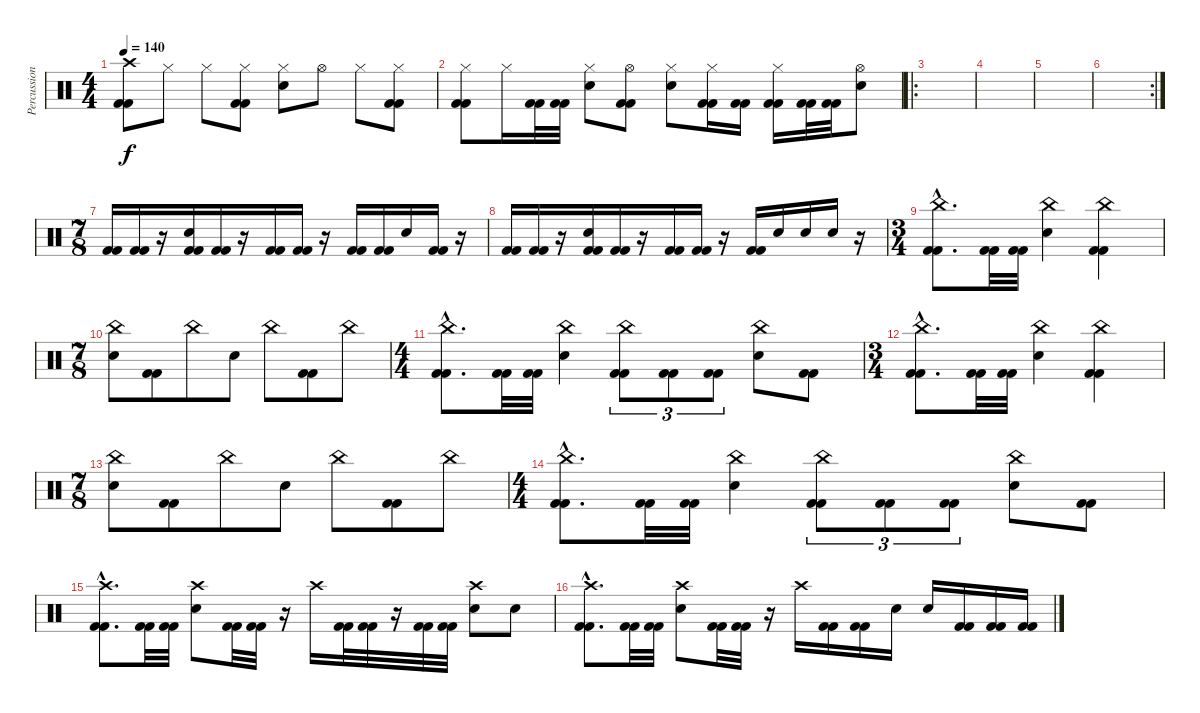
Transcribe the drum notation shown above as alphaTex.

\track ("Percussions" "Percussion") {instrument percussion}
\staff {score}
\articulation defaults
\ts (4 4)
\tempo 140
\clef neutral
\ks c
("Kick (hit) 2" "Kick (hit) 2" "Crash high (hit)").8{dy f} "Hi-Hat (closed)".8 "Hi-Hat (closed)".8 ("Kick (hit) 2" "Kick (hit) 2" "Hi-Hat (closed)").8 ("Electric Snare (hit)" "Hi-Hat (closed)").8 "Hi-Hat (open)".8 "Hi-Hat (closed)".8 ("Kick (hit) 2" "Kick (hit) 2" "Hi-Hat (closed)").8 |
("Kick (hit) 2" "Kick (hit) 2" "Hi-Hat (closed)").8 "Hi-Hat (closed)".16 ("Kick (hit) 2" "Kick (hit) 2").32 ("Kick (hit) 2" "Kick (hit) 2").32 ("Electric Snare (hit)" "Hi-Hat (closed)").8 ("Kick (hit) 2" "Kick (hit) 2" "Hi-Hat (open)").8 ("Electric Snare (hit)" "Hi-Hat (closed)").8 ("Kick (hit) 2" "Kick (hit) 2" "Hi-Hat (closed)").16 ("Kick (hit) 2" "Kick (hit) 2").16 ("Kick (hit) 2" "Kick (hit) 2" "Hi-Hat (closed)").16 ("Kick (hit) 2" "Kick (hit) 2").32 ("Kick (hit) 2" "Kick (hit) 2").32 ("Electric Snare (hit)" "Hi-Hat (open)").8 |
\ro
|
|
|
\rc 2
|
\ts (7 8)
("Kick (hit) 2" "Kick (hit) 2").16 ("Kick (hit) 2" "Kick (hit) 2").16 r.16 ("Kick (hit) 2" "Kick (hit) 2" "Electric Snare (hit)").16 ("Kick (hit) 2" "Kick (hit) 2").16 r.16 ("Kick (hit) 2" "Kick (hit) 2").16 ("Kick (hit) 2" "Kick (hit) 2").16 r.16 ("Kick (hit) 2" "Kick (hit) 2").16 ("Kick (hit) 2" "Kick (hit) 2").16 "Electric Snare (hit)".16 ("Kick (hit) 2" "Kick (hit) 2").16 r.16 |
("Kick (hit) 2" "Kick (hit) 2").16 ("Kick (hit) 2" "Kick (hit) 2").16 r.16 ("Kick (hit) 2" "Kick (hit) 2" "Electric Snare (hit)").16 ("Kick (hit) 2" "Kick (hit) 2").16 r.16 ("Kick (hit) 2" "Kick (hit) 2").16 ("Kick (hit) 2" "Kick (hit) 2").16 r.16 ("Kick (hit) 2" "Kick (hit) 2").16 "Electric Snare (hit)".16 "Electric Snare (hit)".16 "Electric Snare (hit)".16 r.16 |
\ts (3 4)
("Kick (hit) 2"{hac} "Kick (hit) 2"{hac} "China (hit)"{hac}).8{d} ("Kick (hit) 2" "Kick (hit) 2").32 ("Kick (hit) 2" "Kick (hit) 2").32 ("Electric Snare (hit)" "China (hit)").4 ("Kick (hit) 2" "Kick (hit) 2" "China (hit)").4 |
\ts (7 8)
("Electric Snare (hit)" "China (hit)").8 ("Kick (hit) 2" "Kick (hit) 2").8 "China (hit)".8 "Electric Snare (hit)".8 "China (hit)".8 ("Kick (hit) 2" "Kick (hit) 2").8 "China (hit)".8 |
\ts (4 4)
("Kick (hit) 2"{hac} "Kick (hit) 2"{hac} "China (hit)"{hac}).8{d} ("Kick (hit) 2" "Kick (hit) 2").32 ("Kick (hit) 2" "Kick (hit) 2").32 ("Electric Snare (hit)" "China (hit)").4 ("Kick (hit) 2" "Kick (hit) 2" "China (hit)").8{tu (3 2)} ("Kick (hit) 2" "Kick (hit) 2").8{tu (3 2)} ("Kick (hit) 2" "Kick (hit) 2").8{tu (3 2)} ("Electric Snare (hit)" "China (hit)").8 ("Kick (hit) 2" "Kick (hit) 2").8 |
\ts (3 4)
("Kick (hit) 2"{hac} "Kick (hit) 2"{hac} "China (hit)"{hac}).8{d} ("Kick (hit) 2" "Kick (hit) 2").32 ("Kick (hit) 2" "Kick (hit) 2").32 ("Electric Snare (hit)" "China (hit)").4 ("Kick (hit) 2" "Kick (hit) 2" "China (hit)").4 |
\ts (7 8)
("Electric Snare (hit)" "China (hit)").8 ("Kick (hit) 2" "Kick (hit) 2").8 "China (hit)".8 "Electric Snare (hit)".8 "China (hit)".8 ("Kick (hit) 2" "Kick (hit) 2").8 "China (hit)".8 |
\ts (4 4)
("Kick (hit) 2"{hac} "Kick (hit) 2"{hac} "China (hit)"{hac}).8{d} ("Kick (hit) 2" "Kick (hit) 2").32 ("Kick (hit) 2" "Kick (hit) 2").32 ("Electric Snare (hit)" "China (hit)").4 ("Kick (hit) 2" "Kick (hit) 2" "China (hit)").8{tu (3 2)} ("Kick (hit) 2" "Kick (hit) 2").8{tu (3 2)} ("Kick (hit) 2" "Kick (hit) 2").8{tu (3 2)} ("Electric Snare (hit)" "China (hit)").8 ("Kick (hit) 2" "Kick (hit) 2").8 |
("Kick (hit) 2"{hac} "Kick (hit) 2"{hac} "Crash high (hit)"{hac}).8{d} ("Kick (hit) 2" "Kick (hit) 2").32 ("Kick (hit) 2" "Kick (hit) 2").32 ("Electric Snare (hit)" "Crash high (hit)").8 ("Kick (hit) 2" "Kick (hit) 2").32 ("Kick (hit) 2" "Kick (hit) 2").32 r.16 "Crash high (hit)".16 ("Kick (hit) 2" "Kick (hit) 2").32 ("Kick (hit) 2" "Kick (hit) 2").32 r.16 ("Kick (hit) 2" "Kick (hit) 2").32 ("Kick (hit) 2" "Kick (hit) 2").32 ("Electric Snare (hit)" "Crash high (hit)").8 "Electric Snare (hit)".8 |
("Kick (hit) 2"{hac} "Kick (hit) 2"{hac} "Crash high (hit)"{hac}).8{d} ("Kick (hit) 2" "Kick (hit) 2").32 ("Kick (hit) 2" "Kick (hit) 2").32 ("Electric Snare (hit)" "Crash high (hit)").8 ("Kick (hit) 2" "Kick (hit) 2").32 ("Kick (hit) 2" "Kick (hit) 2").32 r.16 "Crash high (hit)".16 ("Kick (hit) 2" "Kick (hit) 2").16 ("Kick (hit) 2" "Kick (hit) 2").16 "Electric Snare (hit)".16 "Electric Snare (hit)".16 ("Kick (hit) 2" "Kick (hit) 2").16 ("Kick (hit) 2" "Kick (hit) 2").16 ("Kick (hit) 2" "Kick (hit) 2").16
